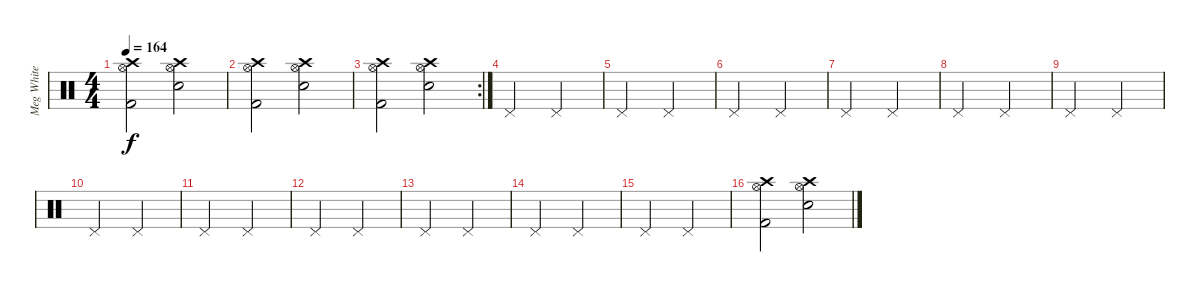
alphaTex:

\track ("Meg White" "Meg White") {instrument percussion}
\staff {score}
\articulation defaults
\ts (4 4)
\tempo 164
\clef neutral
\ks c
("Crash high (hit)" "Hi-Hat (open)" "Kick (hit) 2").2{dy f} ("Crash high (hit)" "Hi-Hat (open)" "Electric Snare (hit)").2 |
("Crash high (hit)" "Hi-Hat (open)" "Kick (hit) 2").2 ("Crash high (hit)" "Hi-Hat (open)" "Electric Snare (hit)").2 |
\rc 2
("Crash high (hit)" "Hi-Hat (open)" "Kick (hit) 2").2 ("Crash high (hit)" "Hi-Hat (open)" "Electric Snare (hit)").2 |
"Pedal Hi-Hat (hit)".2 "Pedal Hi-Hat (hit)".2 |
"Pedal Hi-Hat (hit)".2 "Pedal Hi-Hat (hit)".2 |
"Pedal Hi-Hat (hit)".2 "Pedal Hi-Hat (hit)".2 |
"Pedal Hi-Hat (hit)".2 "Pedal Hi-Hat (hit)".2 |
"Pedal Hi-Hat (hit)".2 "Pedal Hi-Hat (hit)".2 |
"Pedal Hi-Hat (hit)".2 "Pedal Hi-Hat (hit)".2 |
"Pedal Hi-Hat (hit)".2 "Pedal Hi-Hat (hit)".2 |
"Pedal Hi-Hat (hit)".2 "Pedal Hi-Hat (hit)".2 |
"Pedal Hi-Hat (hit)".2 "Pedal Hi-Hat (hit)".2 |
"Pedal Hi-Hat (hit)".2 "Pedal Hi-Hat (hit)".2 |
"Pedal Hi-Hat (hit)".2 "Pedal Hi-Hat (hit)".2 |
"Pedal Hi-Hat (hit)".2 "Pedal Hi-Hat (hit)".2 |
("Crash high (hit)" "Hi-Hat (open)" "Kick (hit) 2").2 ("Crash high (hit)" "Hi-Hat (open)" "Electric Snare (hit)").2
